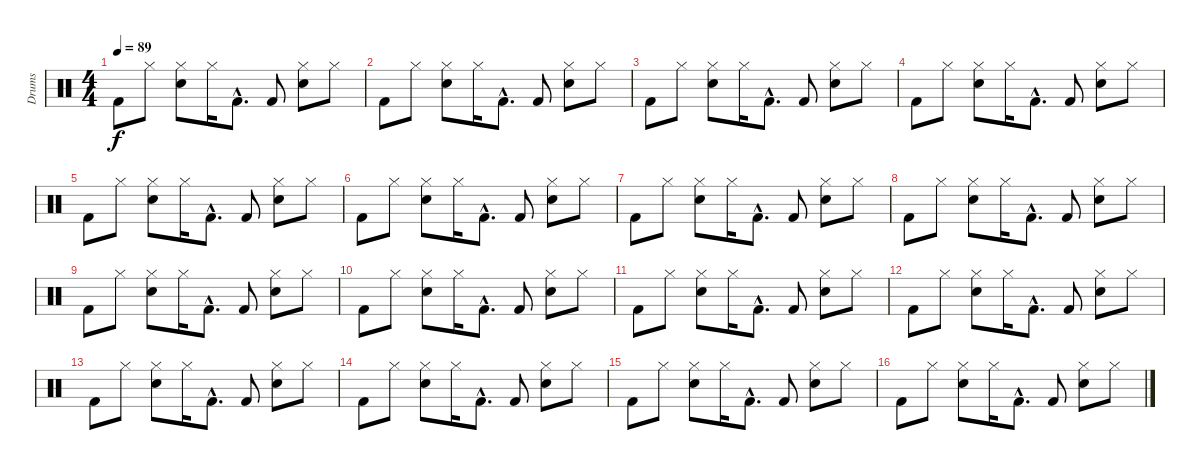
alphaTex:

\track ("Drums" "Drums") {instrument percussion}
\staff {score}
\articulation defaults
\ts (4 4)
\tempo 89
\clef neutral
\ks c "Kick (hit) 2".8{dy f} "Hi-Hat (closed)".8
("Hi-Hat (closed)" "Electric Snare (hit)").8 "Hi-Hat (closed)".16 "Kick (hit) 2"{hac}.8{d} "Kick (hit) 2".8 ("Hi-Hat (closed)" "Electric Snare (hit)").8 "Hi-Hat (closed)".8 |
"Kick (hit) 2".8 "Hi-Hat (closed)".8 ("Hi-Hat (closed)" "Electric Snare (hit)").8 "Hi-Hat (closed)".16 "Kick (hit) 2"{hac}.8{d} "Kick (hit) 2".8 ("Hi-Hat (closed)" "Electric Snare (hit)").8 "Hi-Hat (closed)".8 |
"Kick (hit) 2".8 "Hi-Hat (closed)".8 ("Hi-Hat (closed)" "Electric Snare (hit)").8 "Hi-Hat (closed)".16 "Kick (hit) 2"{hac}.8{d} "Kick (hit) 2".8 ("Hi-Hat (closed)" "Electric Snare (hit)").8 "Hi-Hat (closed)".8 |
"Kick (hit) 2".8 "Hi-Hat (closed)".8 ("Hi-Hat (closed)" "Electric Snare (hit)").8 "Hi-Hat (closed)".16 "Kick (hit) 2"{hac}.8{d} "Kick (hit) 2".8 ("Hi-Hat (closed)" "Electric Snare (hit)").8 "Hi-Hat (closed)".8 |
"Kick (hit) 2".8 "Hi-Hat (closed)".8 ("Hi-Hat (closed)" "Electric Snare (hit)").8 "Hi-Hat (closed)".16 "Kick (hit) 2"{hac}.8{d} "Kick (hit) 2".8 ("Hi-Hat (closed)" "Electric Snare (hit)").8 "Hi-Hat (closed)".8 |
"Kick (hit) 2".8 "Hi-Hat (closed)".8 ("Hi-Hat (closed)" "Electric Snare (hit)").8 "Hi-Hat (closed)".16 "Kick (hit) 2"{hac}.8{d} "Kick (hit) 2".8 ("Hi-Hat (closed)" "Electric Snare (hit)").8 "Hi-Hat (closed)".8 |
"Kick (hit) 2".8 "Hi-Hat (closed)".8 ("Hi-Hat (closed)" "Electric Snare (hit)").8 "Hi-Hat (closed)".16 "Kick (hit) 2"{hac}.8{d} "Kick (hit) 2".8 ("Hi-Hat (closed)" "Electric Snare (hit)").8 "Hi-Hat (closed)".8 |
"Kick (hit) 2".8 "Hi-Hat (closed)".8 ("Hi-Hat (closed)" "Electric Snare (hit)").8 "Hi-Hat (closed)".16 "Kick (hit) 2"{hac}.8{d} "Kick (hit) 2".8 ("Hi-Hat (closed)" "Electric Snare (hit)").8 "Hi-Hat (closed)".8 |
"Kick (hit) 2".8 "Hi-Hat (closed)".8 ("Hi-Hat (closed)" "Electric Snare (hit)").8 "Hi-Hat (closed)".16 "Kick (hit) 2"{hac}.8{d} "Kick (hit) 2".8 ("Hi-Hat (closed)" "Electric Snare (hit)").8 "Hi-Hat (closed)".8 |
"Kick (hit) 2".8 "Hi-Hat (closed)".8 ("Hi-Hat (closed)" "Electric Snare (hit)").8 "Hi-Hat (closed)".16 "Kick (hit) 2"{hac}.8{d} "Kick (hit) 2".8 ("Hi-Hat (closed)" "Electric Snare (hit)").8 "Hi-Hat (closed)".8 |
"Kick (hit) 2".8 "Hi-Hat (closed)".8 ("Hi-Hat (closed)" "Electric Snare (hit)").8 "Hi-Hat (closed)".16 "Kick (hit) 2"{hac}.8{d} "Kick (hit) 2".8 ("Hi-Hat (closed)" "Electric Snare (hit)").8 "Hi-Hat (closed)".8 |
"Kick (hit) 2".8 "Hi-Hat (closed)".8 ("Hi-Hat (closed)" "Electric Snare (hit)").8 "Hi-Hat (closed)".16 "Kick (hit) 2"{hac}.8{d} "Kick (hit) 2".8 ("Hi-Hat (closed)" "Electric Snare (hit)").8 "Hi-Hat (closed)".8 |
"Kick (hit) 2".8 "Hi-Hat (closed)".8 ("Hi-Hat (closed)" "Electric Snare (hit)").8 "Hi-Hat (closed)".16 "Kick (hit) 2"{hac}.8{d} "Kick (hit) 2".8 ("Hi-Hat (closed)" "Electric Snare (hit)").8 "Hi-Hat (closed)".8 |
"Kick (hit) 2".8 "Hi-Hat (closed)".8 ("Hi-Hat (closed)" "Electric Snare (hit)").8 "Hi-Hat (closed)".16 "Kick (hit) 2"{hac}.8{d} "Kick (hit) 2".8 ("Hi-Hat (closed)" "Electric Snare (hit)").8 "Hi-Hat (closed)".8 |
"Kick (hit) 2".8 "Hi-Hat (closed)".8 ("Hi-Hat (closed)" "Electric Snare (hit)").8 "Hi-Hat (closed)".16 "Kick (hit) 2"{hac}.8{d} "Kick (hit) 2".8 ("Hi-Hat (closed)" "Electric Snare (hit)").8 "Hi-Hat (closed)".8 |
"Kick (hit) 2".8 "Hi-Hat (closed)".8 ("Hi-Hat (closed)" "Electric Snare (hit)").8 "Hi-Hat (closed)".16 "Kick (hit) 2"{hac}.8{d} "Kick (hit) 2".8 ("Hi-Hat (closed)" "Electric Snare (hit)").8 "Hi-Hat (closed)".8
